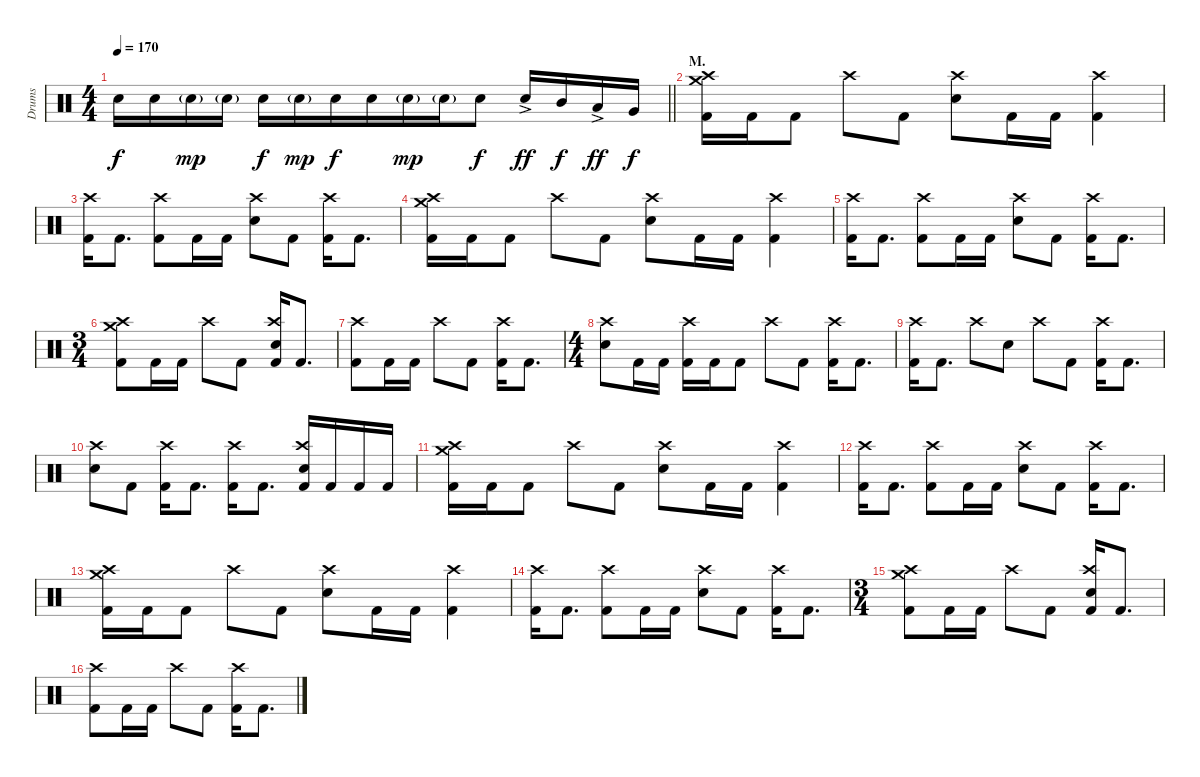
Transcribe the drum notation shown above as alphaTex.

\track ("Drums" "Drums") {instrument percussion}
\staff {score}
\articulation defaults
\ts (4 4)
\tempo 170
\clef neutral
\barLineRight lightlight
\ks c "Electric Snare (hit)".16{dy f beam merge} "Electric Snare (hit)".16 "Electric Snare (hit)"{g}.16{dy mp beam merge} "Electric Snare (hit)"{g}.16 "Electric Snare (hit)".16{dy f} "Electric Snare (hit)"{g}.16{dy mp} "Electric Snare (hit)".16{dy f beam merge} "Electric Snare (hit)".16{beam merge} "Electric Snare (hit)"{g}.16{dy mp beam merge} "Electric Snare (hit)"{g}.16{beam merge} "Electric Snare (hit)".8{dy f} "Electric Snare (hit)"{ac}.16{dy ff beam merge} "Mid Tom (hit)".16{dy f beam merge} "Low Tom (hit)"{ac}.16{dy ff} "Very Low Tom (hit)".16{dy f}
|
\section ("" "M.")
("Crash medium (hit)" "Crash high (hit)" "Kick (hit) 2").16 "Kick (hit) 2".16 "Kick (hit) 2".8 "Crash high (hit)".8 "Kick (hit) 2".8 ("Crash high (hit)" "Electric Snare (hit)").8 "Kick (hit) 2".16 "Kick (hit) 2".16 ("Crash high (hit)" "Kick (hit) 2").4 |
("Crash high (hit)" "Kick (hit) 2").16 "Kick (hit) 2".8{d} ("Crash high (hit)" "Kick (hit) 2").8 "Kick (hit) 2".16 "Kick (hit) 2".16 ("Crash high (hit)" "Electric Snare (hit)").8 "Kick (hit) 2".8 ("Crash high (hit)" "Kick (hit) 2").16 "Kick (hit) 2".8{d} |
("Crash medium (hit)" "Crash high (hit)" "Kick (hit) 2").16 "Kick (hit) 2".16 "Kick (hit) 2".8 "Crash high (hit)".8 "Kick (hit) 2".8 ("Crash high (hit)" "Electric Snare (hit)").8 "Kick (hit) 2".16 "Kick (hit) 2".16 ("Crash high (hit)" "Kick (hit) 2").4 |
("Crash high (hit)" "Kick (hit) 2").16 "Kick (hit) 2".8{d} ("Crash high (hit)" "Kick (hit) 2").8 "Kick (hit) 2".16 "Kick (hit) 2".16 ("Crash high (hit)" "Electric Snare (hit)").8 "Kick (hit) 2".8 ("Crash high (hit)" "Kick (hit) 2").16 "Kick (hit) 2".8{d} |
\ts (3 4)
("Crash medium (hit)" "Crash high (hit)" "Kick (hit) 2").8 "Kick (hit) 2".16 "Kick (hit) 2".16 "Crash high (hit)".8 "Kick (hit) 2".8 ("Crash high (hit)" "Electric Snare (hit)" "Kick (hit) 2").16 "Kick (hit) 2".8{d} |
("Crash high (hit)" "Kick (hit) 2").8 "Kick (hit) 2".16 "Kick (hit) 2".16 "Crash high (hit)".8 "Kick (hit) 2".8 ("Crash high (hit)" "Kick (hit) 2").16 "Kick (hit) 2".8{d} |
\ts (4 4)
("Crash high (hit)" "Electric Snare (hit)").8 "Kick (hit) 2".16 "Kick (hit) 2".16 ("Crash high (hit)" "Kick (hit) 2").16 "Kick (hit) 2".16 "Kick (hit) 2".8 "Crash high (hit)".8 "Kick (hit) 2".8 ("Crash high (hit)" "Kick (hit) 2").16 "Kick (hit) 2".8{d} |
("Crash high (hit)" "Kick (hit) 2").16 "Kick (hit) 2".8{d} "Crash high (hit)".8 "Electric Snare (hit)".8 "Crash high (hit)".8 "Kick (hit) 2".8 ("Crash high (hit)" "Kick (hit) 2").16 "Kick (hit) 2".8{d} |
("Crash high (hit)" "Electric Snare (hit)").8 "Kick (hit) 2".8 ("Crash high (hit)" "Kick (hit) 2").16 "Kick (hit) 2".8{d} ("Crash high (hit)" "Kick (hit) 2").16 "Kick (hit) 2".8{d} ("Crash high (hit)" "Electric Snare (hit)" "Kick (hit) 2").16 "Kick (hit) 2".16 "Kick (hit) 2".16 "Kick (hit) 2".16 |
("Crash medium (hit)" "Crash high (hit)" "Kick (hit) 2").16 "Kick (hit) 2".16 "Kick (hit) 2".8 "Crash high (hit)".8 "Kick (hit) 2".8 ("Crash high (hit)" "Electric Snare (hit)").8 "Kick (hit) 2".16 "Kick (hit) 2".16 ("Crash high (hit)" "Kick (hit) 2").4 |
("Crash high (hit)" "Kick (hit) 2").16 "Kick (hit) 2".8{d} ("Crash high (hit)" "Kick (hit) 2").8 "Kick (hit) 2".16 "Kick (hit) 2".16 ("Crash high (hit)" "Electric Snare (hit)").8 "Kick (hit) 2".8 ("Crash high (hit)" "Kick (hit) 2").16 "Kick (hit) 2".8{d} |
("Crash medium (hit)" "Crash high (hit)" "Kick (hit) 2").16 "Kick (hit) 2".16 "Kick (hit) 2".8 "Crash high (hit)".8 "Kick (hit) 2".8 ("Crash high (hit)" "Electric Snare (hit)").8 "Kick (hit) 2".16 "Kick (hit) 2".16 ("Crash high (hit)" "Kick (hit) 2").4 |
("Crash high (hit)" "Kick (hit) 2").16 "Kick (hit) 2".8{d} ("Crash high (hit)" "Kick (hit) 2").8 "Kick (hit) 2".16 "Kick (hit) 2".16 ("Crash high (hit)" "Electric Snare (hit)").8 "Kick (hit) 2".8 ("Crash high (hit)" "Kick (hit) 2").16 "Kick (hit) 2".8{d} |
\ts (3 4)
("Crash medium (hit)" "Crash high (hit)" "Kick (hit) 2").8 "Kick (hit) 2".16 "Kick (hit) 2".16 "Crash high (hit)".8 "Kick (hit) 2".8 ("Crash high (hit)" "Electric Snare (hit)" "Kick (hit) 2").16 "Kick (hit) 2".8{d} |
("Crash high (hit)" "Kick (hit) 2").8 "Kick (hit) 2".16 "Kick (hit) 2".16 "Crash high (hit)".8 "Kick (hit) 2".8 ("Crash high (hit)" "Kick (hit) 2").16 "Kick (hit) 2".8{d}
